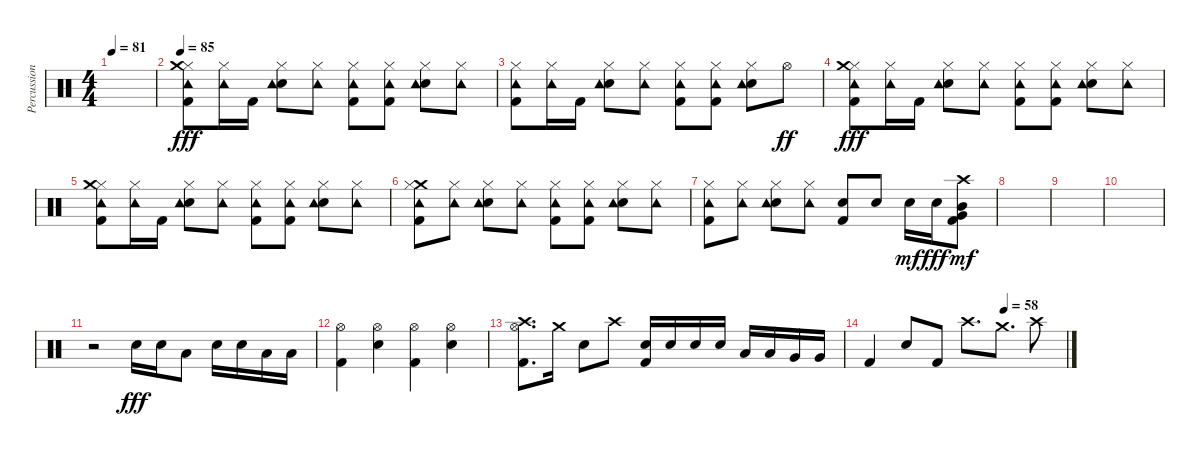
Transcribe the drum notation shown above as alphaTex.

\track ("Percussion" "Percussion") {instrument percussion}
\staff {score}
\articulation defaults
\ts (4 4)
\tempo 81
\clef neutral
\ks c
|
\tempo 85
("Hi-Hat (closed)" "Kick (hit) 2" "Crash medium (hit)" "Tambourine (hit)").8{dy fff} ("Hi-Hat (closed)" "Tambourine (hit)").16 "Kick (hit) 2".16 ("Hi-Hat (closed)" "Electric Snare (hit)" "Tambourine (hit)").8 ("Hi-Hat (closed)" "Tambourine (hit)").8 ("Hi-Hat (closed)" "Kick (hit) 2" "Tambourine (hit)").8 ("Hi-Hat (closed)" "Kick (hit) 2" "Tambourine (hit)").8 ("Hi-Hat (closed)" "Electric Snare (hit)" "Tambourine (hit)").8 ("Hi-Hat (closed)" "Tambourine (hit)").8 |
("Hi-Hat (closed)" "Kick (hit) 2" "Tambourine (hit)").8 ("Hi-Hat (closed)" "Tambourine (hit)").16 "Kick (hit) 2".16 ("Hi-Hat (closed)" "Electric Snare (hit)" "Tambourine (hit)").8 ("Hi-Hat (closed)" "Tambourine (hit)").8 ("Hi-Hat (closed)" "Kick (hit) 2" "Tambourine (hit)").8 ("Hi-Hat (closed)" "Kick (hit) 2" "Tambourine (hit)").8 ("Hi-Hat (closed)" "Electric Snare (hit)" "Tambourine (hit)").8 "Hi-Hat (open)".8{dy ff} |
("Hi-Hat (closed)" "Kick (hit) 2" "Crash medium (hit)" "Tambourine (hit)").8{dy fff} ("Hi-Hat (closed)" "Tambourine (hit)").16 "Kick (hit) 2".16 ("Hi-Hat (closed)" "Electric Snare (hit)" "Tambourine (hit)").8 ("Hi-Hat (closed)" "Tambourine (hit)").8 ("Hi-Hat (closed)" "Kick (hit) 2" "Tambourine (hit)").8 ("Hi-Hat (closed)" "Kick (hit) 2" "Tambourine (hit)").8 ("Hi-Hat (closed)" "Electric Snare (hit)" "Tambourine (hit)").8 ("Hi-Hat (closed)" "Tambourine (hit)").8 |
("Hi-Hat (closed)" "Kick (hit) 2" "Crash medium (hit)" "Tambourine (hit)").8 ("Hi-Hat (closed)" "Tambourine (hit)").16 "Kick (hit) 2".16 ("Hi-Hat (closed)" "Electric Snare (hit)" "Tambourine (hit)").8 ("Hi-Hat (closed)" "Tambourine (hit)").8 ("Hi-Hat (closed)" "Kick (hit) 2" "Tambourine (hit)").8 ("Hi-Hat (closed)" "Kick (hit) 2" "Tambourine (hit)").8 ("Hi-Hat (closed)" "Electric Snare (hit)" "Tambourine (hit)").8 ("Hi-Hat (closed)" "Tambourine (hit)").8 |
("Crash medium (hit)" "Kick (hit) 2" "Hi-Hat (closed)" "Tambourine (hit)").8 ("Hi-Hat (closed)" "Tambourine (hit)").8 ("Electric Snare (hit)" "Hi-Hat (closed)" "Tambourine (hit)").8 ("Hi-Hat (closed)" "Tambourine (hit)").8 ("Kick (hit) 2" "Hi-Hat (closed)" "Tambourine (hit)").8 ("Kick (hit) 2" "Hi-Hat (closed)" "Tambourine (hit)").8 ("Electric Snare (hit)" "Hi-Hat (closed)" "Tambourine (hit)").8 ("Hi-Hat (closed)" "Tambourine (hit)").8 |
("Kick (hit) 2" "Hi-Hat (closed)" "Tambourine (hit)").8 ("Hi-Hat (closed)" "Tambourine (hit)").8 ("Electric Snare (hit)" "Hi-Hat (closed)" "Tambourine (hit)").8 ("Hi-Hat (closed)" "Tambourine (hit)").8 ("Electric Snare (hit)" "Kick (hit) 2").8 "Electric Snare (hit)".8 "Electric Snare (hit)".16{dy mf} "Electric Snare (hit)".16{dy fff} ("Mid Tom (hit)" "Very Low Tom (hit)" "Kick (hit) 2" "Crash high (hit)").8{dy mf} |
|
|
|
r.2 "Electric Snare (hit)".16{dy fff} "Electric Snare (hit)".16 "Low Tom (hit)".8 "Electric Snare (hit)".16 "Electric Snare (hit)".16 "Low Tom (hit)".16 "Low Tom (hit)".16 |
("Hi-Hat (open)" "Kick (hit) 2").4 ("Hi-Hat (open)" "Electric Snare (hit)").4 ("Hi-Hat (open)" "Kick (hit) 2").4 ("Hi-Hat (open)" "Electric Snare (hit)").4 |
("Hi-Hat (open)" "Kick (hit) 2" "Crash high (hit)").8{d} "Crash medium (hit)".16 "Electric Snare (hit)".8 "Crash high (hit)".8 ("Kick (hit) 2" "Electric Snare (hit)").16 "Electric Snare (hit)".16 "Electric Snare (hit)".16 "Electric Snare (hit)".16 "Low Tom (hit)".16 "Low Tom (hit)".16 "Very Low Tom (hit)".16 "Very Low Tom (hit)".16 |
\tempo (58 0.6875)
"Kick (hit) 2".4 "Electric Snare (hit)".8 "Kick (hit) 2".8 "Crash high (hit)".8{d} "Crash medium (hit)".8{d} "Crash high (hit)".8
